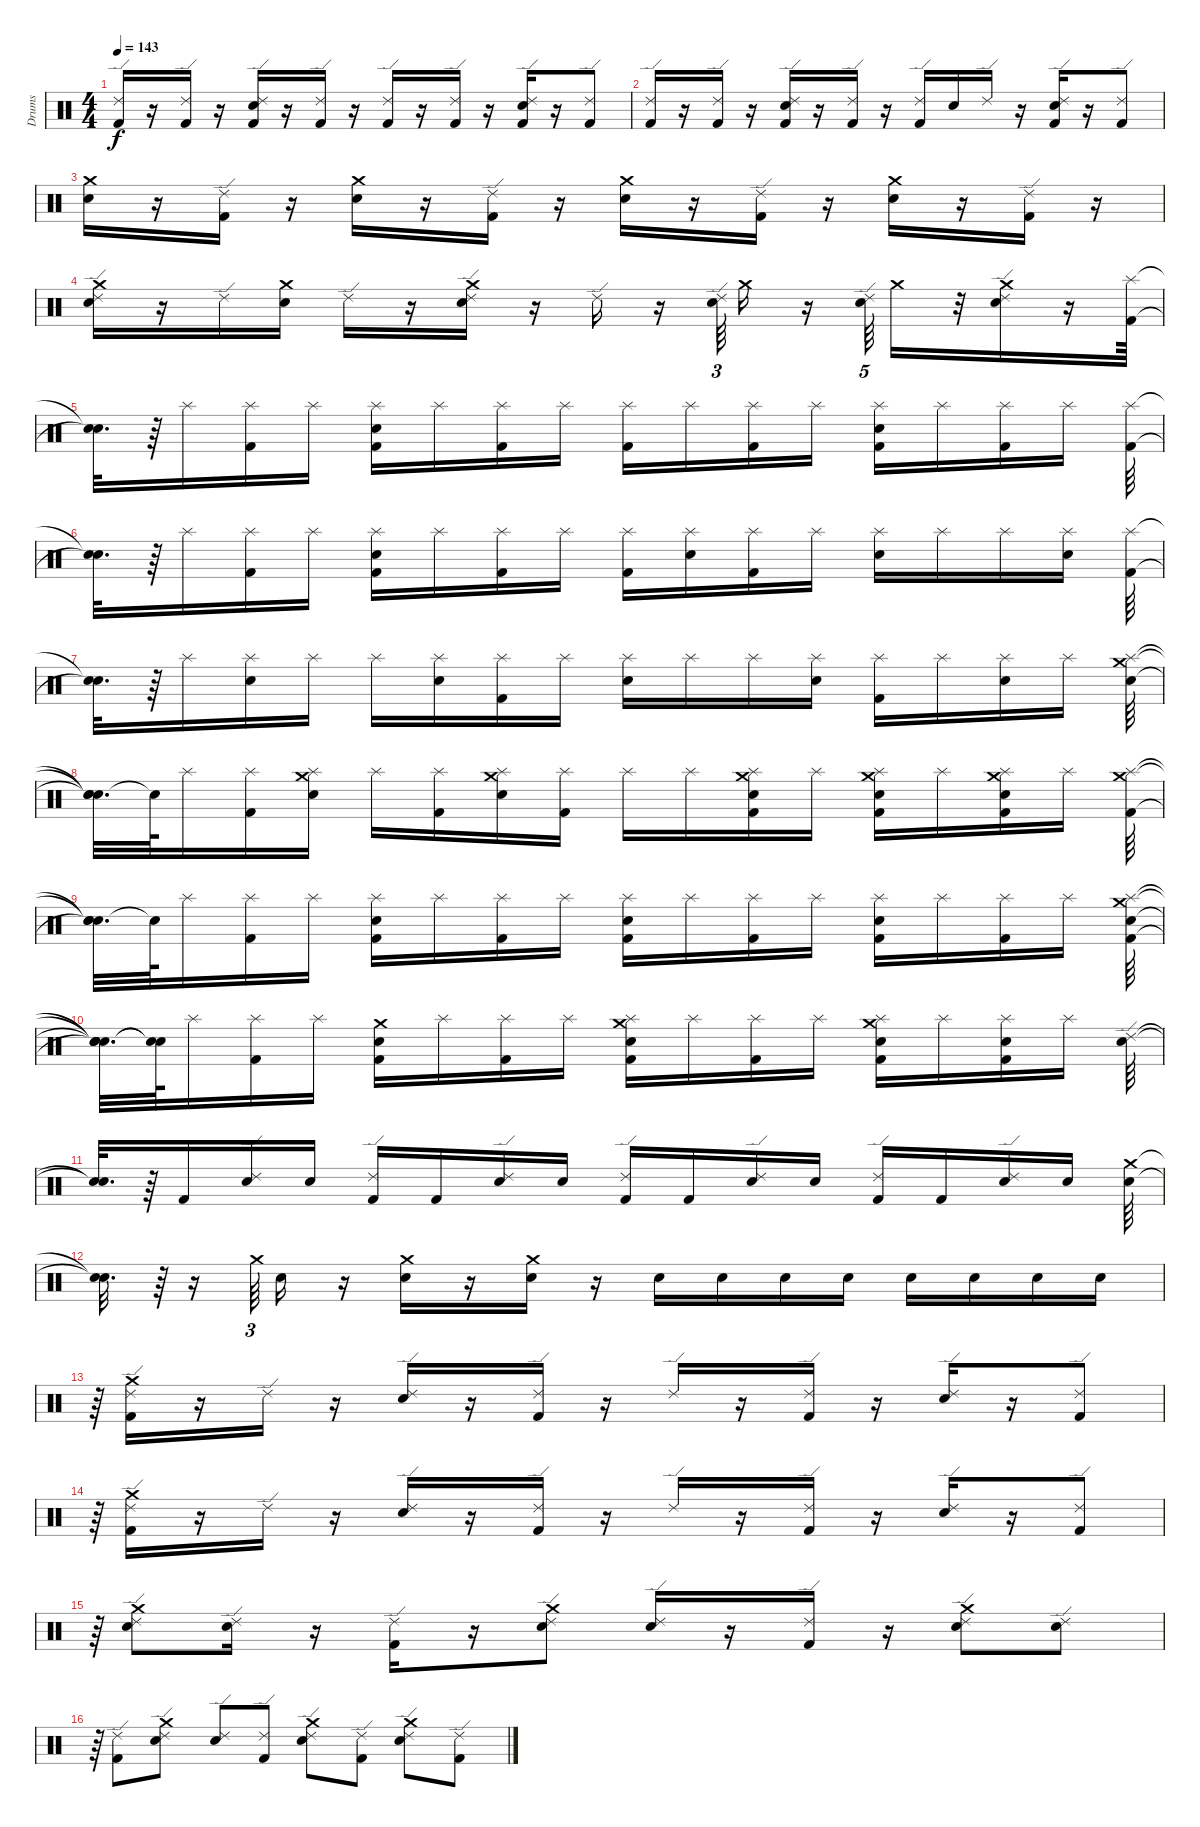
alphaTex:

\track ("Drums" "Drums") {instrument percussion}
\staff {score}
\articulation defaults
\ts (4 4)
\tempo 143
\clef neutral
\ks c
("Kick (hit) 2" "Ride (edge) 2").16{dy f} r.16 ("Kick (hit) 2" "Ride (edge) 2").16 r.16 ("Kick (hit) 2" "Electric Snare (hit)" "Ride (edge) 2").16 r.16 ("Kick (hit) 2" "Ride (edge) 2").16 r.16 ("Kick (hit) 2" "Ride (edge) 2").16 r.16 ("Kick (hit) 2" "Ride (edge) 2").16 r.16 ("Kick (hit) 2" "Electric Snare (hit)" "Ride (edge) 2").16 r.16 ("Kick (hit) 2" "Ride (edge) 2").8 |
("Kick (hit) 2" "Ride (edge) 2").16 r.16 ("Kick (hit) 2" "Ride (edge) 2").16 r.16 ("Kick (hit) 2" "Electric Snare (hit)" "Ride (edge) 2").16 r.16 ("Kick (hit) 2" "Ride (edge) 2").16 r.16 ("Kick (hit) 2" "Ride (edge) 2").16 "Electric Snare (hit)".16 "Ride (edge) 2".16 r.16 ("Kick (hit) 2" "Electric Snare (hit)" "Ride (edge) 2").16 r.16 ("Kick (hit) 2" "Ride (edge) 2").8 |
("Crash medium (hit)" "Electric Snare (hit)").16 r.16 ("Ride (edge) 2" "Kick (hit) 2").16 r.16 ("Electric Snare (hit)" "Crash medium (hit)").16 r.16 ("Ride (edge) 2" "Kick (hit) 2").16 r.16 ("Crash medium (hit)" "Electric Snare (hit)").16 r.16 ("Ride (edge) 2" "Kick (hit) 2").16 r.16 ("Crash medium (hit)" "Electric Snare (hit)").16 r.16 ("Kick (hit) 2" "Ride (edge) 2").16 r.16 |
("Ride (edge) 2" "Electric Snare (hit)" "Crash medium (hit)").16 r.16 "Ride (edge) 2".16 ("Crash medium (hit)" "Electric Snare (hit)").16 "Ride (edge) 2".16 r.16 ("Ride (edge) 2" "Electric Snare (hit)" "Crash medium (hit)").16 r.16 "Ride (edge) 2".16 r.16 ("Ride (edge) 2" "Electric Snare (hit)").64{tu (3 2)} "Crash medium (hit)".16 r.16 ("Ride (edge) 2" "Electric Snare (hit)").64{tu (5 4)} "Crash medium (hit)".16 r.32 ("Crash medium (hit)" "Ride (edge) 2" "Electric Snare (hit)").16 r.16 ("Kick (hit) 2" "Splash (hit)").64 |
("Snare (hit)"{t} "Snare (hit)"{t}).32{d} r.64 "Splash (hit)".16 ("Splash (hit)" "Kick (hit) 2").16 "Splash (hit)".16 ("Kick (hit) 2" "Electric Snare (hit)" "Splash (hit)").16 "Splash (hit)".16 ("Kick (hit) 2" "Splash (hit)").16 "Splash (hit)".16 ("Kick (hit) 2" "Splash (hit)").16 "Splash (hit)".16 ("Splash (hit)" "Kick (hit) 2").16 "Splash (hit)".16 ("Electric Snare (hit)" "Splash (hit)" "Kick (hit) 2").16 "Splash (hit)".16 ("Kick (hit) 2" "Splash (hit)").16 "Splash (hit)".16 ("Kick (hit) 2" "Splash (hit)").64 |
("Snare (hit)"{t} "Snare (hit)"{t}).32{d} r.64 "Splash (hit)".16 ("Kick (hit) 2" "Splash (hit)").16 "Splash (hit)".16 ("Splash (hit)" "Kick (hit) 2" "Electric Snare (hit)").16 "Splash (hit)".16 ("Kick (hit) 2" "Splash (hit)").16 "Splash (hit)".16 ("Splash (hit)" "Kick (hit) 2").16 ("Electric Snare (hit)" "Splash (hit)").16 ("Splash (hit)" "Kick (hit) 2").16 "Splash (hit)".16 ("Splash (hit)" "Electric Snare (hit)").16 "Splash (hit)".16 "Splash (hit)".16 ("Electric Snare (hit)" "Splash (hit)").16 ("Kick (hit) 2" "Splash (hit)").64 |
("Snare (hit)"{t} "Snare (hit)"{t}).32{d} r.64 "Splash (hit)".16 ("Electric Snare (hit)" "Splash (hit)").16 "Splash (hit)".16 "Splash (hit)".16 ("Electric Snare (hit)" "Splash (hit)").16 ("Splash (hit)" "Kick (hit) 2").16 "Splash (hit)".16 ("Splash (hit)" "Electric Snare (hit)").16 "Splash (hit)".16 "Splash (hit)".16 ("Electric Snare (hit)" "Splash (hit)").16 ("Splash (hit)" "Kick (hit) 2").16 "Splash (hit)".16 ("Electric Snare (hit)" "Splash (hit)").16 "Splash (hit)".16 ("Electric Snare (hit)" "Crash medium (hit)" "Splash (hit)").64 |
("Snare (hit)"{t} "Snare (hit)"{t} "Snare (hit)"{t}).32{d} "Snare (hit)"{t}.64 "Splash (hit)".16 ("Kick (hit) 2" "Splash (hit)").16 ("Electric Snare (hit)" "Crash medium (hit)" "Splash (hit)").16 "Splash (hit)".16 ("Kick (hit) 2" "Splash (hit)").16 ("Electric Snare (hit)" "Crash medium (hit)" "Splash (hit)").16 ("Kick (hit) 2" "Splash (hit)").16 "Splash (hit)".16 "Splash (hit)".16 ("Crash medium (hit)" "Electric Snare (hit)" "Kick (hit) 2" "Splash (hit)").16 "Splash (hit)".16 ("Electric Snare (hit)" "Crash medium (hit)" "Kick (hit) 2" "Splash (hit)").16 "Splash (hit)".16 ("Kick (hit) 2" "Crash medium (hit)" "Electric Snare (hit)" "Splash (hit)").16 "Splash (hit)".16 ("Crash medium (hit)" "Kick (hit) 2" "Splash (hit)").64 |
("Snare (hit)"{t} "Snare (hit)"{t} "Snare (hit)"{t}).32{d} "Snare (hit)"{t}.64 "Splash (hit)".16 ("Splash (hit)" "Kick (hit) 2").16 "Splash (hit)".16 ("Kick (hit) 2" "Electric Snare (hit)" "Splash (hit)").16 "Splash (hit)".16 ("Kick (hit) 2" "Splash (hit)").16 "Splash (hit)".16 ("Electric Snare (hit)" "Kick (hit) 2" "Splash (hit)").16 "Splash (hit)".16 ("Splash (hit)" "Kick (hit) 2").16 "Splash (hit)".16 ("Electric Snare (hit)" "Splash (hit)" "Kick (hit) 2").16 "Splash (hit)".16 ("Kick (hit) 2" "Splash (hit)").16 "Splash (hit)".16 ("Electric Snare (hit)" "Kick (hit) 2" "Splash (hit)" "Crash medium (hit)").64 |
("Snare (hit)"{t} "Snare (hit)"{t} "Snare (hit)"{t} "Snare (hit)"{t}).32{d} ("Snare (hit)"{t} "Snare (hit)"{t}).64 "Splash (hit)".16 ("Splash (hit)" "Kick (hit) 2").16 "Splash (hit)".16 ("Kick (hit) 2" "Electric Snare (hit)" "Crash medium (hit)").16 "Splash (hit)".16 ("Kick (hit) 2" "Splash (hit)").16 "Splash (hit)".16 ("Electric Snare (hit)" "Crash medium (hit)" "Kick (hit) 2" "Splash (hit)").16 "Splash (hit)".16 ("Splash (hit)" "Kick (hit) 2").16 "Splash (hit)".16 ("Crash medium (hit)" "Electric Snare (hit)" "Splash (hit)" "Kick (hit) 2").16 "Splash (hit)".16 ("Electric Snare (hit)" "Kick (hit) 2" "Splash (hit)").16 "Splash (hit)".16 ("Ride (edge) 2" "Electric Snare (hit)").64 |
("Snare (hit)"{t} "Snare (hit)"{t}).32{d} r.64 "Kick (hit) 2".16 ("Ride (edge) 2" "Electric Snare (hit)").16 "Electric Snare (hit)".16 ("Ride (edge) 2" "Kick (hit) 2").16 "Kick (hit) 2".16 ("Ride (edge) 2" "Electric Snare (hit)").16 "Electric Snare (hit)".16 ("Ride (edge) 2" "Kick (hit) 2").16 "Kick (hit) 2".16 ("Ride (edge) 2" "Electric Snare (hit)").16 "Electric Snare (hit)".16 ("Ride (edge) 2" "Kick (hit) 2").16 "Kick (hit) 2".16 ("Ride (edge) 2" "Electric Snare (hit)").16 "Electric Snare (hit)".16 ("Crash medium (hit)" "Electric Snare (hit)").64 |
("Snare (hit)"{t} "Snare (hit)"{t}).32{d} r.64 r.16 "Crash medium (hit)".64{tu (3 2)} "Electric Snare (hit)".16 r.16 ("Crash medium (hit)" "Electric Snare (hit)").16 r.16 ("Crash medium (hit)" "Electric Snare (hit)").16 r.16 "Electric Snare (hit)".16 "Electric Snare (hit)".16 "Electric Snare (hit)".16 "Electric Snare (hit)".16 "Electric Snare (hit)".16 "Electric Snare (hit)".16 "Electric Snare (hit)".16 "Electric Snare (hit)".16 |
r.64 ("Crash medium (hit)" "Kick (hit) 2" "Ride (edge) 2").16 r.16 "Ride (edge) 2".16 r.16 ("Electric Snare (hit)" "Ride (edge) 2").16 r.16 ("Ride (edge) 2" "Kick (hit) 2").16 r.16 "Ride (edge) 2".16 r.16 ("Kick (hit) 2" "Ride (edge) 2").16 r.16 ("Electric Snare (hit)" "Ride (edge) 2").16 r.16 ("Kick (hit) 2" "Ride (edge) 2").8 |
r.64 ("Crash medium (hit)" "Kick (hit) 2" "Ride (edge) 2").16 r.16 "Ride (edge) 2".16 r.16 ("Electric Snare (hit)" "Ride (edge) 2").16 r.16 ("Ride (edge) 2" "Kick (hit) 2").16 r.16 "Ride (edge) 2".16 r.16 ("Kick (hit) 2" "Ride (edge) 2").16 r.16 ("Electric Snare (hit)" "Ride (edge) 2").16 r.16 ("Kick (hit) 2" "Ride (edge) 2").8 |
r.64 ("Crash medium (hit)" "Electric Snare (hit)" "Ride (edge) 2").8 ("Electric Snare (hit)" "Ride (edge) 2").16 r.16 ("Kick (hit) 2" "Ride (edge) 2").16 r.16 ("Crash medium (hit)" "Ride (edge) 2" "Electric Snare (hit)").8 ("Electric Snare (hit)" "Ride (edge) 2").16 r.16 ("Kick (hit) 2" "Ride (edge) 2").16 r.16 ("Crash medium (hit)" "Electric Snare (hit)" "Ride (edge) 2").8 ("Electric Snare (hit)" "Ride (edge) 2").8 |
r.64 ("Kick (hit) 2" "Ride (edge) 2").8 ("Crash medium (hit)" "Electric Snare (hit)" "Ride (edge) 2").8 ("Ride (edge) 2" "Electric Snare (hit)").8 ("Kick (hit) 2" "Ride (edge) 2").8 ("Crash medium (hit)" "Electric Snare (hit)" "Ride (edge) 2").8 ("Ride (edge) 2" "Kick (hit) 2").8 ("Crash medium (hit)" "Electric Snare (hit)" "Ride (edge) 2").8 ("Kick (hit) 2" "Ride (edge) 2").8
